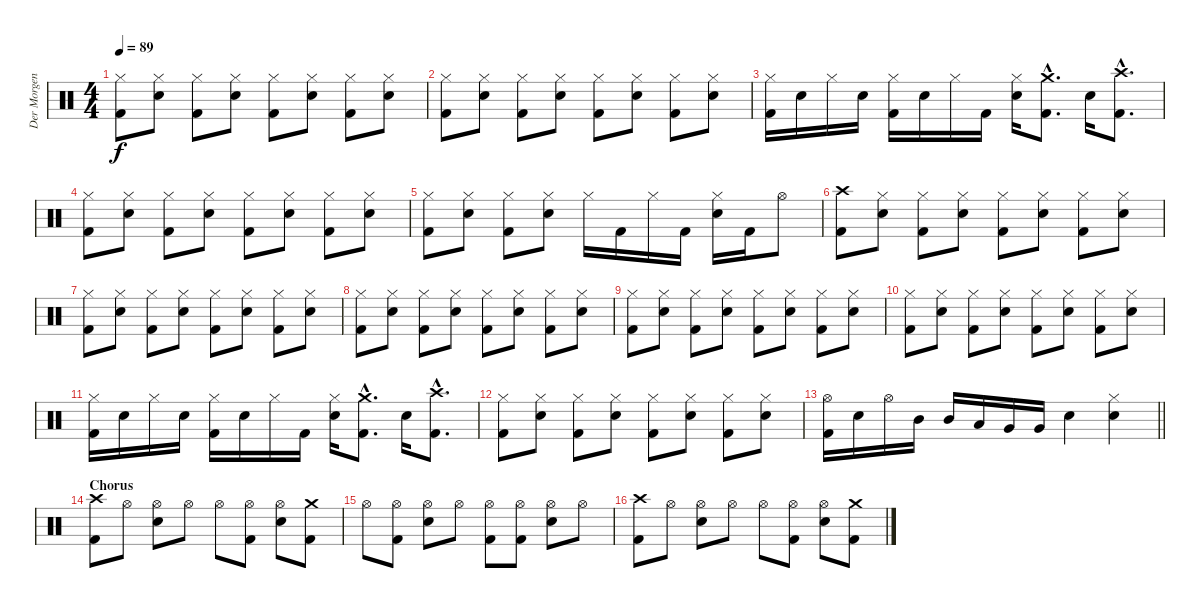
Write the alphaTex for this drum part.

\track ("Der Morgenstern" "Der Morgen") {instrument percussion}
\staff {score}
\articulation defaults
\ts (4 4)
\tempo 89
\clef neutral
\ks c
("Hi-Hat (closed)" "Kick (hit) 2").8{dy f} ("Hi-Hat (closed)" "Electric Snare (hit)").8 ("Hi-Hat (closed)" "Kick (hit) 2").8 ("Hi-Hat (closed)" "Electric Snare (hit)").8 ("Hi-Hat (closed)" "Kick (hit) 2").8 ("Hi-Hat (closed)" "Electric Snare (hit)").8 ("Hi-Hat (closed)" "Kick (hit) 2").8 ("Hi-Hat (closed)" "Electric Snare (hit)").8 |
("Hi-Hat (closed)" "Kick (hit) 2").8 ("Hi-Hat (closed)" "Electric Snare (hit)").8 ("Hi-Hat (closed)" "Kick (hit) 2").8 ("Hi-Hat (closed)" "Electric Snare (hit)").8 ("Hi-Hat (closed)" "Kick (hit) 2").8 ("Hi-Hat (closed)" "Electric Snare (hit)").8 ("Hi-Hat (closed)" "Kick (hit) 2").8 ("Hi-Hat (closed)" "Electric Snare (hit)").8 |
("Hi-Hat (closed)" "Kick (hit) 2").16 "Electric Snare (hit)".16 "Hi-Hat (closed)".16 "Electric Snare (hit)".16 ("Hi-Hat (closed)" "Kick (hit) 2").16 "Electric Snare (hit)".16 "Hi-Hat (closed)".16 "Kick (hit) 2".16 ("Hi-Hat (closed)" "Electric Snare (hit)").16 ("Crash medium (hit)"{hac} "Kick (hit) 2"{hac}).8{d} "Electric Snare (hit)".16 ("Crash high (hit)"{hac} "Kick (hit) 2"{hac}).8{d} |
("Hi-Hat (closed)" "Kick (hit) 2").8 ("Hi-Hat (closed)" "Electric Snare (hit)").8 ("Hi-Hat (closed)" "Kick (hit) 2").8 ("Hi-Hat (closed)" "Electric Snare (hit)").8 ("Hi-Hat (closed)" "Kick (hit) 2").8 ("Hi-Hat (closed)" "Electric Snare (hit)").8 ("Hi-Hat (closed)" "Kick (hit) 2").8 ("Hi-Hat (closed)" "Electric Snare (hit)").8 |
("Hi-Hat (closed)" "Kick (hit) 2").8 ("Hi-Hat (closed)" "Electric Snare (hit)").8 ("Hi-Hat (closed)" "Kick (hit) 2").8 ("Hi-Hat (closed)" "Electric Snare (hit)").8 "Hi-Hat (closed)".16 "Kick (hit) 2".16 "Hi-Hat (closed)".16 "Kick (hit) 2".16 ("Hi-Hat (closed)" "Electric Snare (hit)").16 "Kick (hit) 2".16 "Hi-Hat (open)".8 |
("Crash high (hit)" "Kick (hit) 2").8 ("Hi-Hat (closed)" "Electric Snare (hit)").8 ("Hi-Hat (closed)" "Kick (hit) 2").8 ("Hi-Hat (closed)" "Electric Snare (hit)").8 ("Hi-Hat (closed)" "Kick (hit) 2").8 ("Hi-Hat (closed)" "Electric Snare (hit)").8 ("Hi-Hat (closed)" "Kick (hit) 2").8 ("Hi-Hat (closed)" "Electric Snare (hit)").8 |
("Hi-Hat (closed)" "Kick (hit) 2").8 ("Hi-Hat (closed)" "Electric Snare (hit)").8 ("Hi-Hat (closed)" "Kick (hit) 2").8 ("Hi-Hat (closed)" "Electric Snare (hit)").8 ("Hi-Hat (closed)" "Kick (hit) 2").8 ("Hi-Hat (closed)" "Electric Snare (hit)").8 ("Hi-Hat (closed)" "Kick (hit) 2").8 ("Hi-Hat (closed)" "Electric Snare (hit)").8 |
("Hi-Hat (closed)" "Kick (hit) 2").8 ("Hi-Hat (closed)" "Electric Snare (hit)").8 ("Hi-Hat (closed)" "Kick (hit) 2").8 ("Hi-Hat (closed)" "Electric Snare (hit)").8 ("Hi-Hat (closed)" "Kick (hit) 2").8 ("Hi-Hat (closed)" "Electric Snare (hit)").8 ("Hi-Hat (closed)" "Kick (hit) 2").8 ("Hi-Hat (closed)" "Electric Snare (hit)").8 |
("Hi-Hat (closed)" "Kick (hit) 2").8 ("Hi-Hat (closed)" "Electric Snare (hit)").8 ("Hi-Hat (closed)" "Kick (hit) 2").8 ("Hi-Hat (closed)" "Electric Snare (hit)").8 ("Hi-Hat (closed)" "Kick (hit) 2").8 ("Hi-Hat (closed)" "Electric Snare (hit)").8 ("Hi-Hat (closed)" "Kick (hit) 2").8 ("Hi-Hat (closed)" "Electric Snare (hit)").8 |
("Hi-Hat (closed)" "Kick (hit) 2").8 ("Hi-Hat (closed)" "Electric Snare (hit)").8 ("Hi-Hat (closed)" "Kick (hit) 2").8 ("Hi-Hat (closed)" "Electric Snare (hit)").8 ("Hi-Hat (closed)" "Kick (hit) 2").8 ("Hi-Hat (closed)" "Electric Snare (hit)").8 ("Hi-Hat (closed)" "Kick (hit) 2").8 ("Hi-Hat (closed)" "Electric Snare (hit)").8 |
("Hi-Hat (closed)" "Kick (hit) 2").16 "Electric Snare (hit)".16 "Hi-Hat (closed)".16 "Electric Snare (hit)".16 ("Hi-Hat (closed)" "Kick (hit) 2").16 "Electric Snare (hit)".16 "Hi-Hat (closed)".16 "Kick (hit) 2".16 ("Hi-Hat (closed)" "Electric Snare (hit)").16 ("Crash medium (hit)"{hac} "Kick (hit) 2"{hac}).8{d} "Electric Snare (hit)".16 ("Crash high (hit)"{hac} "Kick (hit) 2"{hac}).8{d} |
("Hi-Hat (closed)" "Kick (hit) 2").8 ("Hi-Hat (closed)" "Electric Snare (hit)").8 ("Hi-Hat (closed)" "Kick (hit) 2").8 ("Hi-Hat (closed)" "Electric Snare (hit)").8 ("Hi-Hat (closed)" "Kick (hit) 2").8 ("Hi-Hat (closed)" "Electric Snare (hit)").8 ("Hi-Hat (closed)" "Kick (hit) 2").8 ("Hi-Hat (closed)" "Electric Snare (hit)").8 |
\barLineRight lightlight
("Hi-Hat (open)" "Kick (hit) 2").16 "Electric Snare (hit)".16 "Hi-Hat (open)".16 "Mid Tom (hit)".16 "Mid Tom (hit)".16 "Low Tom (hit)".16 "Very Low Tom (hit)".16 "Very Low Tom (hit)".16 "Electric Snare (hit)".4 ("Hi-Hat (closed)" "Electric Snare (hit)").4 |
\section ("" "Chorus")
("Crash high (hit)" "Kick (hit) 2").8 "Hi-Hat (open)".8 ("Hi-Hat (open)" "Electric Snare (hit)").8 "Hi-Hat (open)".8 "Hi-Hat (open)".8 ("Hi-Hat (open)" "Kick (hit) 2").8 ("Hi-Hat (open)" "Electric Snare (hit)").8 ("Crash medium (hit)" "Kick (hit) 2").8 |
"Hi-Hat (open)".8 ("Hi-Hat (open)" "Kick (hit) 2").8 ("Hi-Hat (open)" "Electric Snare (hit)").8 "Hi-Hat (open)".8 ("Hi-Hat (open)" "Kick (hit) 2").8 ("Hi-Hat (open)" "Kick (hit) 2").8 ("Hi-Hat (open)" "Electric Snare (hit)").8 "Hi-Hat (open)".8 |
("Crash high (hit)" "Kick (hit) 2").8 "Hi-Hat (open)".8 ("Hi-Hat (open)" "Electric Snare (hit)").8 "Hi-Hat (open)".8 "Hi-Hat (open)".8 ("Hi-Hat (open)" "Kick (hit) 2").8 ("Hi-Hat (open)" "Electric Snare (hit)").8 ("Crash medium (hit)" "Kick (hit) 2").8
